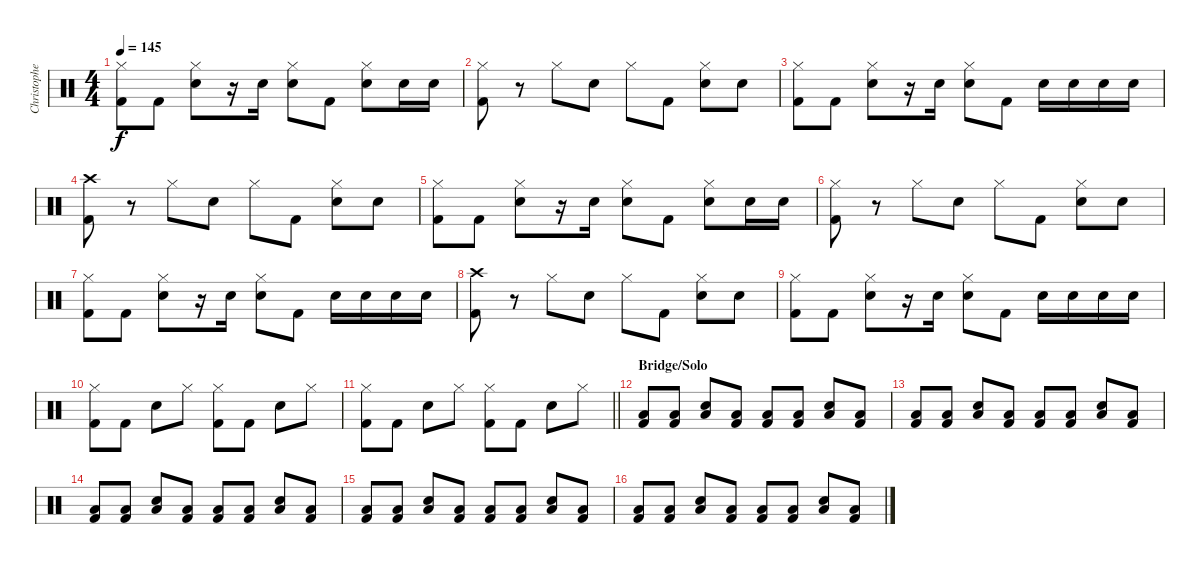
\track ("Christopher - Drums" "Christophe") {instrument percussion}
\staff {score}
\articulation defaults
\ts (4 4)
\tempo 145
\clef neutral
\ks c
("Hi-Hat (closed)" "Kick (hit) 2").8{dy f} "Kick (hit) 2".8 ("Hi-Hat (closed)" "Electric Snare (hit)").8 r.16 "Electric Snare (hit)".16 ("Hi-Hat (closed)" "Electric Snare (hit)").8 "Kick (hit) 2".8 ("Hi-Hat (closed)" "Electric Snare (hit)").8 "Electric Snare (hit)".16 "Electric Snare (hit)".16 |
("Hi-Hat (closed)" "Kick (hit) 2").8 r.8 "Hi-Hat (closed)".8 "Electric Snare (hit)".8 "Hi-Hat (closed)".8 "Kick (hit) 2".8 ("Hi-Hat (closed)" "Electric Snare (hit)").8 "Electric Snare (hit)".8 |
("Hi-Hat (closed)" "Kick (hit) 2").8 "Kick (hit) 2".8 ("Hi-Hat (closed)" "Electric Snare (hit)").8 r.16 "Electric Snare (hit)".16 ("Hi-Hat (closed)" "Electric Snare (hit)").8 "Kick (hit) 2".8 "Electric Snare (hit)".16 "Electric Snare (hit)".16 "Electric Snare (hit)".16 "Electric Snare (hit)".16 |
("Crash high (hit)" "Kick (hit) 2").8 r.8 "Hi-Hat (closed)".8 "Electric Snare (hit)".8 "Hi-Hat (closed)".8 "Kick (hit) 2".8 ("Hi-Hat (closed)" "Electric Snare (hit)").8 "Electric Snare (hit)".8 |
("Hi-Hat (closed)" "Kick (hit) 2").8 "Kick (hit) 2".8 ("Hi-Hat (closed)" "Electric Snare (hit)").8 r.16 "Electric Snare (hit)".16 ("Hi-Hat (closed)" "Electric Snare (hit)").8 "Kick (hit) 2".8 ("Hi-Hat (closed)" "Electric Snare (hit)").8 "Electric Snare (hit)".16 "Electric Snare (hit)".16 |
("Hi-Hat (closed)" "Kick (hit) 2").8 r.8 "Hi-Hat (closed)".8 "Electric Snare (hit)".8 "Hi-Hat (closed)".8 "Kick (hit) 2".8 ("Hi-Hat (closed)" "Electric Snare (hit)").8 "Electric Snare (hit)".8 |
("Hi-Hat (closed)" "Kick (hit) 2").8 "Kick (hit) 2".8 ("Hi-Hat (closed)" "Electric Snare (hit)").8 r.16 "Electric Snare (hit)".16 ("Hi-Hat (closed)" "Electric Snare (hit)").8 "Kick (hit) 2".8 "Electric Snare (hit)".16 "Electric Snare (hit)".16 "Electric Snare (hit)".16 "Electric Snare (hit)".16 |
("Crash high (hit)" "Kick (hit) 2").8 r.8 "Hi-Hat (closed)".8 "Electric Snare (hit)".8 "Hi-Hat (closed)".8 "Kick (hit) 2".8 ("Hi-Hat (closed)" "Electric Snare (hit)").8 "Electric Snare (hit)".8 |
("Hi-Hat (closed)" "Kick (hit) 2").8 "Kick (hit) 2".8 ("Hi-Hat (closed)" "Electric Snare (hit)").8 r.16 "Electric Snare (hit)".16 ("Hi-Hat (closed)" "Electric Snare (hit)").8 "Kick (hit) 2".8 "Electric Snare (hit)".16 "Electric Snare (hit)".16 "Electric Snare (hit)".16 "Electric Snare (hit)".16 |
("Hi-Hat (closed)" "Kick (hit) 2").8 "Kick (hit) 2".8 "Electric Snare (hit)".8 "Hi-Hat (closed)".8 ("Hi-Hat (closed)" "Kick (hit) 2").8 "Kick (hit) 2".8 "Electric Snare (hit)".8 "Hi-Hat (closed)".8 |
\barLineRight lightlight
("Hi-Hat (closed)" "Kick (hit) 2").8 "Kick (hit) 2".8 "Electric Snare (hit)".8 "Hi-Hat (closed)".8 ("Hi-Hat (closed)" "Kick (hit) 2").8 "Kick (hit) 2".8 "Electric Snare (hit)".8 "Hi-Hat (closed)".8 |
\section ("" "Bridge/Solo")
("Low Tom (hit)" "Kick (hit) 2").8 ("Low Tom (hit)" "Kick (hit) 2").8 ("Low Tom (hit)" "Electric Snare (hit)").8 ("Low Tom (hit)" "Kick (hit) 2").8 ("Low Tom (hit)" "Kick (hit) 2").8 ("Low Tom (hit)" "Kick (hit) 2").8 ("Low Tom (hit)" "Electric Snare (hit)").8 ("Low Tom (hit)" "Kick (hit) 2").8 |
("Low Tom (hit)" "Kick (hit) 2").8 ("Low Tom (hit)" "Kick (hit) 2").8 ("Low Tom (hit)" "Electric Snare (hit)").8 ("Low Tom (hit)" "Kick (hit) 2").8 ("Low Tom (hit)" "Kick (hit) 2").8 ("Low Tom (hit)" "Kick (hit) 2").8 ("Low Tom (hit)" "Electric Snare (hit)").8 ("Low Tom (hit)" "Kick (hit) 2").8 |
("Low Tom (hit)" "Kick (hit) 2").8 ("Low Tom (hit)" "Kick (hit) 2").8 ("Low Tom (hit)" "Electric Snare (hit)").8 ("Low Tom (hit)" "Kick (hit) 2").8 ("Low Tom (hit)" "Kick (hit) 2").8 ("Low Tom (hit)" "Kick (hit) 2").8 ("Low Tom (hit)" "Electric Snare (hit)").8 ("Low Tom (hit)" "Kick (hit) 2").8 |
("Low Tom (hit)" "Kick (hit) 2").8 ("Low Tom (hit)" "Kick (hit) 2").8 ("Low Tom (hit)" "Electric Snare (hit)").8 ("Low Tom (hit)" "Kick (hit) 2").8 ("Low Tom (hit)" "Kick (hit) 2").8 ("Low Tom (hit)" "Kick (hit) 2").8 ("Low Tom (hit)" "Electric Snare (hit)").8 ("Low Tom (hit)" "Kick (hit) 2").8 |
("Low Tom (hit)" "Kick (hit) 2").8 ("Low Tom (hit)" "Kick (hit) 2").8 ("Low Tom (hit)" "Electric Snare (hit)").8 ("Low Tom (hit)" "Kick (hit) 2").8 ("Low Tom (hit)" "Kick (hit) 2").8 ("Low Tom (hit)" "Kick (hit) 2").8 ("Low Tom (hit)" "Electric Snare (hit)").8 ("Low Tom (hit)" "Kick (hit) 2").8
